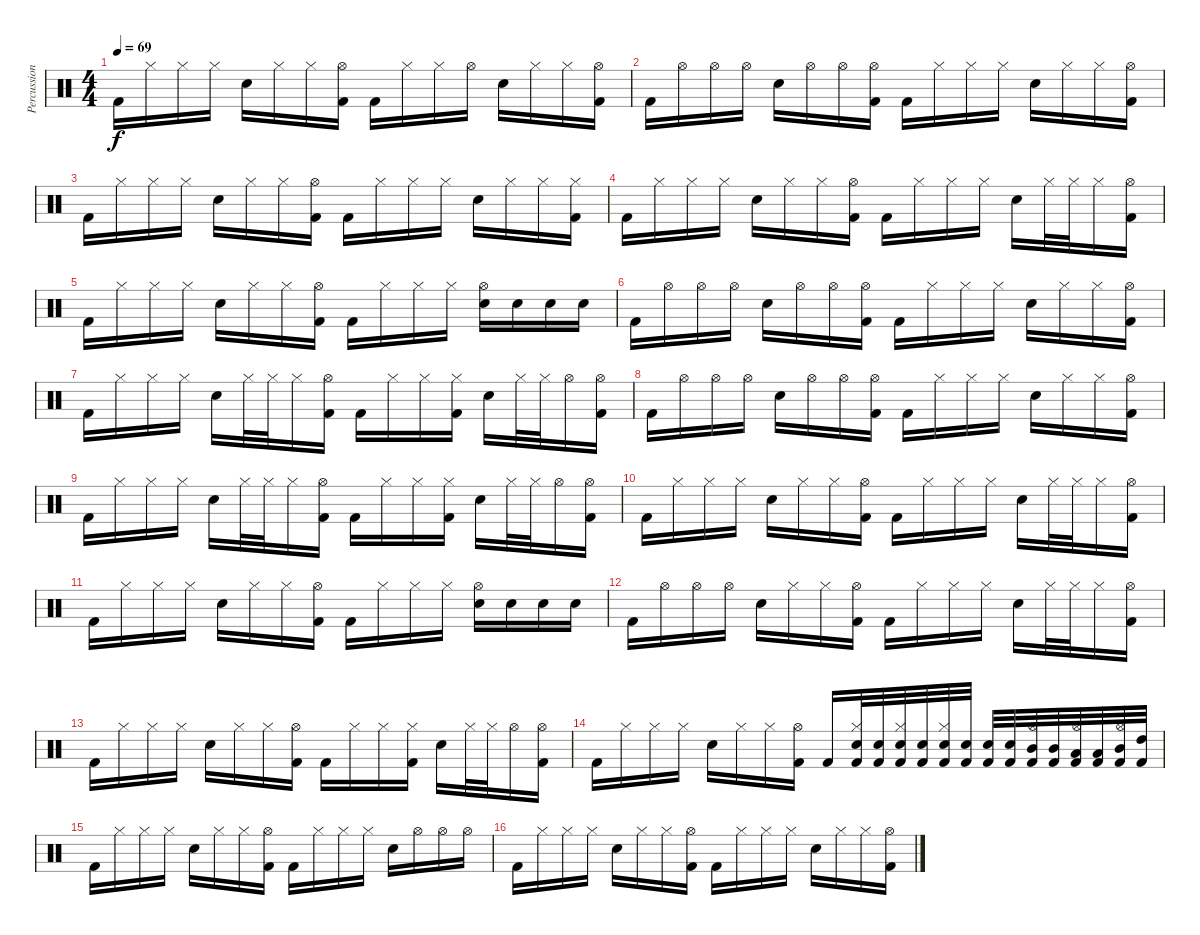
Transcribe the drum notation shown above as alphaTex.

\track ("Percussions" "Percussion") {instrument percussion}
\staff {score}
\articulation defaults
\ts (4 4)
\tempo 69
\clef neutral
\ks c "Kick (hit) 2".16{dy f} "Hi-Hat (closed)".16 "Hi-Hat (closed)".16 "Hi-Hat (closed)".16 "Electric Snare (hit)".16 "Hi-Hat (closed)".16 "Hi-Hat (closed)".16
("Hi-Hat (open)" "Kick (hit) 2").16 "Kick (hit) 2".16 "Hi-Hat (closed)".16 "Hi-Hat (closed)".16 "Hi-Hat (open)".16 "Electric Snare (hit)".16 "Hi-Hat (closed)".16 "Hi-Hat (closed)".16 ("Hi-Hat (open)" "Kick (hit) 2").16 |
"Kick (hit) 2".16 "Hi-Hat (open)".16 "Hi-Hat (open)".16 "Hi-Hat (open)".16 "Electric Snare (hit)".16 "Hi-Hat (open)".16 "Hi-Hat (open)".16 ("Hi-Hat (open)" "Kick (hit) 2").16 "Kick (hit) 2".16 "Hi-Hat (closed)".16 "Hi-Hat (closed)".16 "Hi-Hat (closed)".16 "Electric Snare (hit)".16 "Hi-Hat (closed)".16 "Hi-Hat (closed)".16 ("Hi-Hat (open)" "Kick (hit) 2").16 |
"Kick (hit) 2".16 "Hi-Hat (closed)".16 "Hi-Hat (closed)".16 "Hi-Hat (closed)".16 "Electric Snare (hit)".16 "Hi-Hat (closed)".16 "Hi-Hat (closed)".16 ("Hi-Hat (open)" "Kick (hit) 2").16 "Kick (hit) 2".16 "Hi-Hat (closed)".16 "Hi-Hat (closed)".16 "Hi-Hat (closed)".16 "Electric Snare (hit)".16 "Hi-Hat (closed)".16 "Hi-Hat (closed)".16 ("Hi-Hat (closed)" "Kick (hit) 2").16 |
"Kick (hit) 2".16 "Hi-Hat (closed)".16 "Hi-Hat (closed)".16 "Hi-Hat (closed)".16 "Electric Snare (hit)".16 "Hi-Hat (closed)".16 "Hi-Hat (closed)".16 ("Hi-Hat (open)" "Kick (hit) 2").16 "Kick (hit) 2".16 "Hi-Hat (closed)".16 "Hi-Hat (closed)".16 "Hi-Hat (closed)".16 "Electric Snare (hit)".16 "Hi-Hat (closed)".32 "Hi-Hat (closed)".32 "Hi-Hat (closed)".16 ("Hi-Hat (open)" "Kick (hit) 2").16 |
"Kick (hit) 2".16 "Hi-Hat (closed)".16 "Hi-Hat (closed)".16 "Hi-Hat (closed)".16 "Electric Snare (hit)".16 "Hi-Hat (closed)".16 "Hi-Hat (closed)".16 ("Hi-Hat (open)" "Kick (hit) 2").16 "Kick (hit) 2".16 "Hi-Hat (closed)".16 "Hi-Hat (closed)".16 "Hi-Hat (closed)".16 ("Hi-Hat (open)" "Electric Snare (hit)").16 "Electric Snare (hit)".16 "Electric Snare (hit)".16 "Electric Snare (hit)".16 |
"Kick (hit) 2".16 "Hi-Hat (open)".16 "Hi-Hat (open)".16 "Hi-Hat (open)".16 "Electric Snare (hit)".16 "Hi-Hat (open)".16 "Hi-Hat (open)".16 ("Hi-Hat (open)" "Kick (hit) 2").16 "Kick (hit) 2".16 "Hi-Hat (closed)".16 "Hi-Hat (closed)".16 "Hi-Hat (closed)".16 "Electric Snare (hit)".16 "Hi-Hat (closed)".16 "Hi-Hat (closed)".16 ("Hi-Hat (open)" "Kick (hit) 2").16 |
"Kick (hit) 2".16 "Hi-Hat (closed)".16 "Hi-Hat (closed)".16 "Hi-Hat (closed)".16 "Electric Snare (hit)".16 "Hi-Hat (closed)".32 "Hi-Hat (closed)".32 "Hi-Hat (closed)".16 ("Hi-Hat (open)" "Kick (hit) 2").16 "Kick (hit) 2".16 "Hi-Hat (closed)".16 "Hi-Hat (closed)".16 ("Hi-Hat (closed)" "Kick (hit) 2").16 "Electric Snare (hit)".16 "Hi-Hat (closed)".32 "Hi-Hat (closed)".32 "Hi-Hat (open)".16 ("Hi-Hat (open)" "Kick (hit) 2").16 |
"Kick (hit) 2".16 "Hi-Hat (open)".16 "Hi-Hat (open)".16 "Hi-Hat (open)".16 "Electric Snare (hit)".16 "Hi-Hat (open)".16 "Hi-Hat (open)".16 ("Hi-Hat (open)" "Kick (hit) 2").16 "Kick (hit) 2".16 "Hi-Hat (closed)".16 "Hi-Hat (closed)".16 "Hi-Hat (closed)".16 "Electric Snare (hit)".16 "Hi-Hat (closed)".16 "Hi-Hat (closed)".16 ("Hi-Hat (open)" "Kick (hit) 2").16 |
"Kick (hit) 2".16 "Hi-Hat (closed)".16 "Hi-Hat (closed)".16 "Hi-Hat (closed)".16 "Electric Snare (hit)".16 "Hi-Hat (closed)".32 "Hi-Hat (closed)".32 "Hi-Hat (closed)".16 ("Hi-Hat (open)" "Kick (hit) 2").16 "Kick (hit) 2".16 "Hi-Hat (closed)".16 "Hi-Hat (closed)".16 ("Hi-Hat (closed)" "Kick (hit) 2").16 "Electric Snare (hit)".16 "Hi-Hat (closed)".32 "Hi-Hat (closed)".32 "Hi-Hat (open)".16 ("Hi-Hat (open)" "Kick (hit) 2").16 |
"Kick (hit) 2".16 "Hi-Hat (closed)".16 "Hi-Hat (closed)".16 "Hi-Hat (closed)".16 "Electric Snare (hit)".16 "Hi-Hat (closed)".16 "Hi-Hat (closed)".16 ("Hi-Hat (open)" "Kick (hit) 2").16 "Kick (hit) 2".16 "Hi-Hat (closed)".16 "Hi-Hat (closed)".16 "Hi-Hat (closed)".16 "Electric Snare (hit)".16 "Hi-Hat (closed)".32 "Hi-Hat (closed)".32 "Hi-Hat (closed)".16 ("Hi-Hat (open)" "Kick (hit) 2").16 |
"Kick (hit) 2".16 "Hi-Hat (closed)".16 "Hi-Hat (closed)".16 "Hi-Hat (closed)".16 "Electric Snare (hit)".16 "Hi-Hat (closed)".16 "Hi-Hat (closed)".16 ("Hi-Hat (open)" "Kick (hit) 2").16 "Kick (hit) 2".16 "Hi-Hat (closed)".16 "Hi-Hat (closed)".16 "Hi-Hat (closed)".16 ("Hi-Hat (open)" "Electric Snare (hit)").16 "Electric Snare (hit)".16 "Electric Snare (hit)".16 "Electric Snare (hit)".16 |
"Kick (hit) 2".16 "Hi-Hat (open)".16 "Hi-Hat (open)".16 "Hi-Hat (open)".16 "Electric Snare (hit)".16 "Hi-Hat (closed)".16 "Hi-Hat (closed)".16 ("Hi-Hat (open)" "Kick (hit) 2").16 "Kick (hit) 2".16 "Hi-Hat (closed)".16 "Hi-Hat (closed)".16 "Hi-Hat (closed)".16 "Electric Snare (hit)".16 "Hi-Hat (closed)".32 "Hi-Hat (closed)".32 "Hi-Hat (closed)".16 ("Hi-Hat (open)" "Kick (hit) 2").16 |
"Kick (hit) 2".16 "Hi-Hat (closed)".16 "Hi-Hat (closed)".16 "Hi-Hat (closed)".16 "Electric Snare (hit)".16 "Hi-Hat (closed)".16 "Hi-Hat (closed)".16 ("Hi-Hat (open)" "Kick (hit) 2").16 "Kick (hit) 2".16 "Hi-Hat (closed)".16 "Hi-Hat (closed)".16 ("Hi-Hat (closed)" "Kick (hit) 2").16 "Electric Snare (hit)".16 "Hi-Hat (closed)".32 "Hi-Hat (closed)".32 "Hi-Hat (open)".16 ("Hi-Hat (open)" "Kick (hit) 2").16 |
"Kick (hit) 2".16 "Hi-Hat (closed)".16 "Hi-Hat (closed)".16 "Hi-Hat (closed)".16 "Electric Snare (hit)".16 "Hi-Hat (closed)".16 "Hi-Hat (closed)".16 ("Hi-Hat (open)" "Kick (hit) 2").16 "Kick (hit) 2".16 ("Hi-Hat (closed)" "Electric Snare (hit)" "Kick (hit) 2").32 ("Electric Snare (hit)" "Kick (hit) 2").32 ("Hi-Hat (closed)" "Electric Snare (hit)" "Kick (hit) 2").32 ("Snare (hit) 2" "Kick (hit) 2").32 ("Hi-Hat (closed)" "Snare (hit) 2" "Kick (hit) 2").32 ("Snare (hit) 2" "Kick (hit) 2").32 ("Electric Snare (hit)" "Kick (hit) 2").32 ("Electric Snare (hit)" "Kick (hit) 2").32 ("Hi-Hat (open)" "Mid Tom (hit)" "Kick (hit) 2").32 ("Mid Tom (hit)" "Kick (hit) 2").32 ("Hi-Hat (open)" "Low Tom (hit)" "Kick (hit) 2").32 ("Low Tom (hit)" "Kick (hit) 2").32 ("Hi-Hat (open)" "Mid Tom (hit)" "Kick (hit) 2").32 ("High Tom (hit)" "Kick (hit) 2").32 |
"Kick (hit) 2".16 "Hi-Hat (closed)".16 "Hi-Hat (closed)".16 "Hi-Hat (closed)".16 "Electric Snare (hit)".16 "Hi-Hat (closed)".16 "Hi-Hat (closed)".16 ("Hi-Hat (open)" "Kick (hit) 2").16 "Kick (hit) 2".16 "Hi-Hat (closed)".16 "Hi-Hat (closed)".16 "Hi-Hat (closed)".16 "Electric Snare (hit)".16 "Hi-Hat (open)".16 "Hi-Hat (open)".16 "Hi-Hat (open)".16 |
"Kick (hit) 2".16 "Hi-Hat (closed)".16 "Hi-Hat (closed)".16 "Hi-Hat (closed)".16 "Electric Snare (hit)".16 "Hi-Hat (closed)".16 "Hi-Hat (closed)".16 ("Hi-Hat (open)" "Kick (hit) 2").16 "Kick (hit) 2".16 "Hi-Hat (closed)".16 "Hi-Hat (closed)".16 "Hi-Hat (closed)".16 "Electric Snare (hit)".16 "Hi-Hat (closed)".16 "Hi-Hat (closed)".16 ("Hi-Hat (open)" "Kick (hit) 2").16
